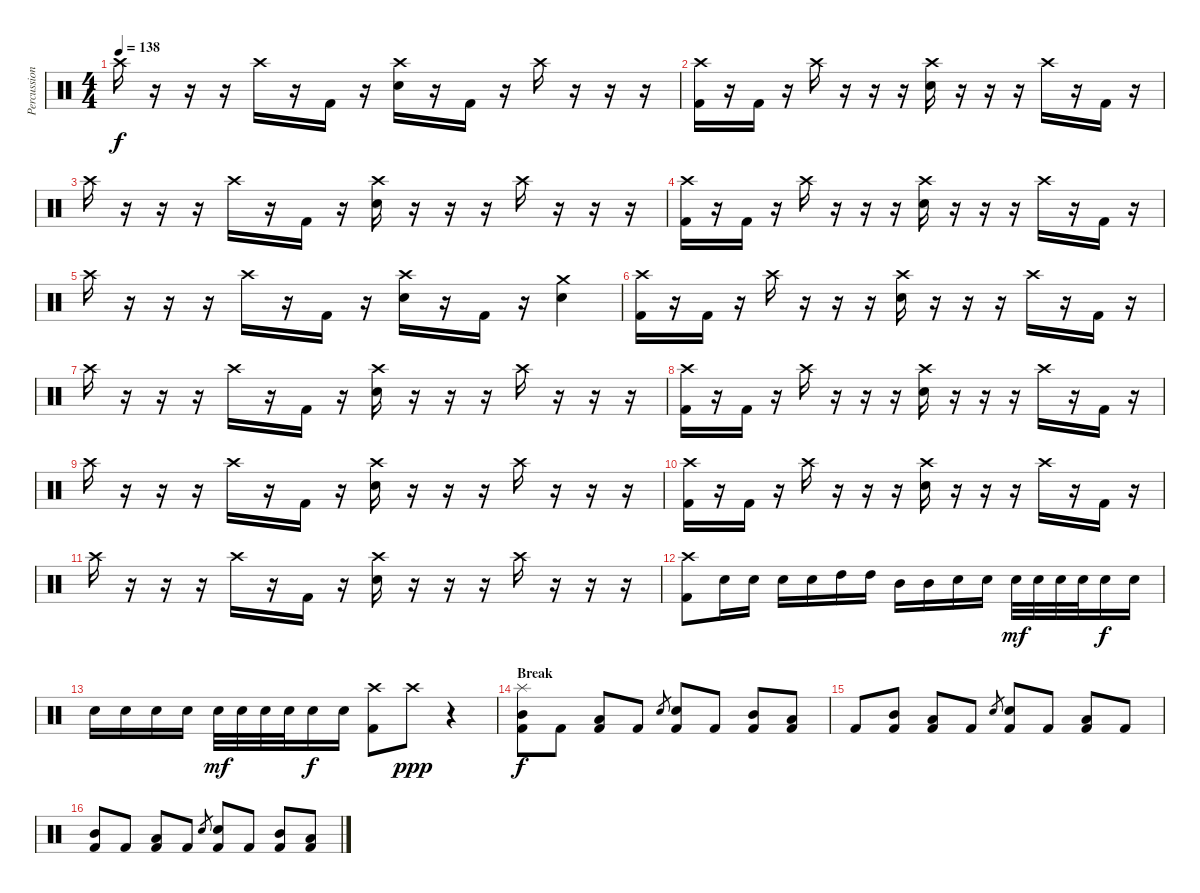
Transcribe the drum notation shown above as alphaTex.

\track ("Percussion" "Percussion") {instrument percussion}
\staff {score}
\articulation defaults
\ts (4 4)
\tempo 138
\clef neutral
\ks c "Crash high (hit)".16{dy f}
r.16 r.16 r.16 "Crash high (hit)".16 r.16 "Kick (hit) 2".16 r.16 ("Crash high (hit)" "Electric Snare (hit)").16 r.16 "Kick (hit) 2".16 r.16 "Crash high (hit)".16 r.16 r.16 r.16 |
("Crash high (hit)" "Kick (hit) 2").16 r.16 "Kick (hit) 2".16 r.16 "Crash high (hit)".16 r.16 r.16 r.16 ("Crash high (hit)" "Electric Snare (hit)").16 r.16 r.16 r.16 "Crash high (hit)".16 r.16 "Kick (hit) 2".16 r.16 |
"Crash high (hit)".16 r.16 r.16 r.16 "Crash high (hit)".16 r.16 "Kick (hit) 2".16 r.16 ("Crash high (hit)" "Electric Snare (hit)").16 r.16 r.16 r.16 "Crash high (hit)".16 r.16 r.16 r.16 |
("Crash high (hit)" "Kick (hit) 2").16 r.16 "Kick (hit) 2".16 r.16 "Crash high (hit)".16 r.16 r.16 r.16 ("Crash high (hit)" "Electric Snare (hit)").16 r.16 r.16 r.16 "Crash high (hit)".16 r.16 "Kick (hit) 2".16 r.16 |
"Crash high (hit)".16 r.16 r.16 r.16 "Crash high (hit)".16 r.16 "Kick (hit) 2".16 r.16 ("Crash high (hit)" "Electric Snare (hit)").16 r.16 "Kick (hit) 2".16 r.16 ("Crash medium (hit)" "Electric Snare (hit)").4 |
("Crash high (hit)" "Kick (hit) 2").16 r.16 "Kick (hit) 2".16 r.16 "Crash high (hit)".16 r.16 r.16 r.16 ("Crash high (hit)" "Electric Snare (hit)").16 r.16 r.16 r.16 "Crash high (hit)".16 r.16 "Kick (hit) 2".16 r.16 |
"Crash high (hit)".16 r.16 r.16 r.16 "Crash high (hit)".16 r.16 "Kick (hit) 2".16 r.16 ("Crash high (hit)" "Electric Snare (hit)").16 r.16 r.16 r.16 "Crash high (hit)".16 r.16 r.16 r.16 |
("Crash high (hit)" "Kick (hit) 2").16 r.16 "Kick (hit) 2".16 r.16 "Crash high (hit)".16 r.16 r.16 r.16 ("Crash high (hit)" "Electric Snare (hit)").16 r.16 r.16 r.16 "Crash high (hit)".16 r.16 "Kick (hit) 2".16 r.16 |
"Crash high (hit)".16 r.16 r.16 r.16 "Crash high (hit)".16 r.16 "Kick (hit) 2".16 r.16 ("Crash high (hit)" "Electric Snare (hit)").16 r.16 r.16 r.16 "Crash high (hit)".16 r.16 r.16 r.16 |
("Crash high (hit)" "Kick (hit) 2").16 r.16 "Kick (hit) 2".16 r.16 "Crash high (hit)".16 r.16 r.16 r.16 ("Crash high (hit)" "Electric Snare (hit)").16 r.16 r.16 r.16 "Crash high (hit)".16 r.16 "Kick (hit) 2".16 r.16 |
"Crash high (hit)".16 r.16 r.16 r.16 "Crash high (hit)".16 r.16 "Kick (hit) 2".16 r.16 ("Crash high (hit)" "Electric Snare (hit)").16 r.16 r.16 r.16 "Crash high (hit)".16 r.16 r.16 r.16 |
("Crash high (hit)" "Kick (hit) 2").8 "Electric Snare (hit)".16 "Electric Snare (hit)".16 "Electric Snare (hit)".16 "Electric Snare (hit)".16 "High Tom (hit)".16 "High Tom (hit)".16 "Mid Tom (hit)".16 "Mid Tom (hit)".16 "Electric Snare (hit)".16 "Electric Snare (hit)".16 "Electric Snare (hit)".32{dy mf} "Electric Snare (hit)".32 "Electric Snare (hit)".32 "Electric Snare (hit)".32 "Electric Snare (hit)".16{dy f} "Electric Snare (hit)".16 |
"Electric Snare (hit)".16 "Electric Snare (hit)".16 "Electric Snare (hit)".16 "Electric Snare (hit)".16 "Electric Snare (hit)".32{dy mf} "Electric Snare (hit)".32 "Electric Snare (hit)".32 "Electric Snare (hit)".32 "Electric Snare (hit)".16{dy f} "Electric Snare (hit)".16 ("Crash high (hit)" "Kick (hit) 2").8 "Crash high (hit)".8{dy ppp} r.4 |
\section ("" "Break")
("Splash (hit)" "Mid Tom (hit)" "Kick (hit) 2").8{dy f} "Kick (hit) 2".8 ("Low Tom (hit)" "Kick (hit) 2").8 "Kick (hit) 2".8 "Electric Snare (hit)".8{gr} ("Electric Snare (hit)" "Kick (hit) 2").8 "Kick (hit) 2".8 ("Mid Tom (hit)" "Kick (hit) 2").8 ("Low Tom (hit)" "Kick (hit) 2").8 |
"Kick (hit) 2".8 ("Mid Tom (hit)" "Kick (hit) 2").8 ("Low Tom (hit)" "Kick (hit) 2").8 "Kick (hit) 2".8 "Electric Snare (hit)".8{gr} ("Electric Snare (hit)" "Kick (hit) 2").8 "Kick (hit) 2".8 ("Low Tom (hit)" "Kick (hit) 2").8 "Kick (hit) 2".8 |
("Mid Tom (hit)" "Kick (hit) 2").8 "Kick (hit) 2".8 ("Low Tom (hit)" "Kick (hit) 2").8 "Kick (hit) 2".8 "Electric Snare (hit)".8{gr} ("Electric Snare (hit)" "Kick (hit) 2").8 "Kick (hit) 2".8 ("Mid Tom (hit)" "Kick (hit) 2").8 ("Low Tom (hit)" "Kick (hit) 2").8
